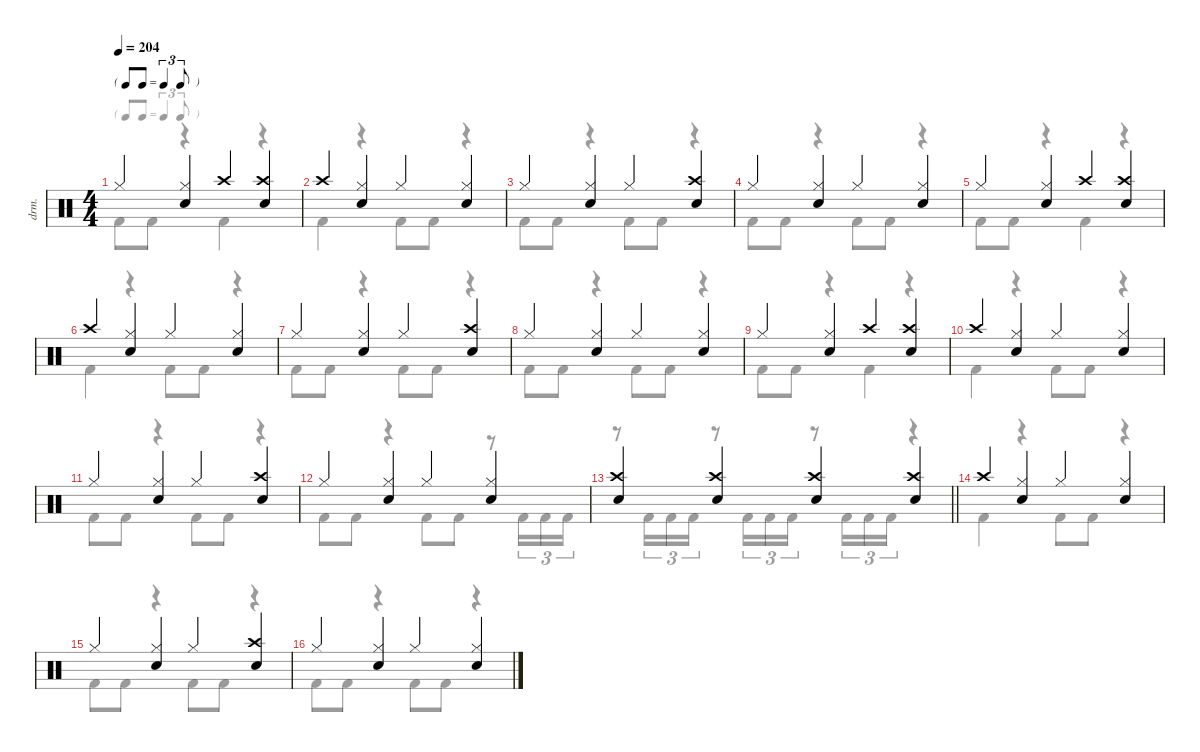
\defaultSystemsLayout 4
\hideDynamics
\bracketExtendMode nobrackets
\otherSystemsTrackNameOrientation horizontal
\track ("Lars Ulrich" "drm.") {defaultSystemsLayout 8 instrument percussion}
\staff {score}
\articulation defaults
\voice
\ts (4 4)
\tf triplet8th
\tempo 204
\clef neutral
\ks aminor "Hi-Hat (closed)".4{dy f beam Up}
("Hi-Hat (closed)" "Snare (hit) 2").4{beam Up} "Crash high (hit)".4{beam Up} ("Crash high (hit)" "Snare (hit) 2").4{beam Up} |
"Crash high (hit)".4{beam Up} ("Hi-Hat (closed)" "Snare (hit) 2").4{beam Up} "Hi-Hat (closed)".4{beam Up} ("Hi-Hat (closed)" "Snare (hit) 2").4{beam Up} |
"Hi-Hat (closed)".4{beam Up} ("Hi-Hat (closed)" "Snare (hit) 2").4{beam Up} "Hi-Hat (closed)".4{beam Up} ("Crash high (hit)" "Snare (hit) 2").4{beam Up} |
"Hi-Hat (closed)".4{beam Up} ("Hi-Hat (closed)" "Snare (hit) 2").4{beam Up} "Hi-Hat (closed)".4{beam Up} ("Hi-Hat (closed)" "Snare (hit) 2").4{beam Up} |
"Hi-Hat (closed)".4{beam Up} ("Hi-Hat (closed)" "Snare (hit) 2").4{beam Up} "Crash high (hit)".4{beam Up} ("Crash high (hit)" "Snare (hit) 2").4{beam Up} |
"Crash high (hit)".4{beam Up} ("Hi-Hat (closed)" "Snare (hit) 2").4{beam Up} "Hi-Hat (closed)".4{beam Up} ("Hi-Hat (closed)" "Snare (hit) 2").4{beam Up} |
"Hi-Hat (closed)".4{beam Up} ("Hi-Hat (closed)" "Snare (hit) 2").4{beam Up} "Hi-Hat (closed)".4{beam Up} ("Crash high (hit)" "Snare (hit) 2").4{beam Up} |
"Hi-Hat (closed)".4{beam Up} ("Hi-Hat (closed)" "Snare (hit) 2").4{beam Up} "Hi-Hat (closed)".4{beam Up} ("Hi-Hat (closed)" "Snare (hit) 2").4{beam Up} |
"Hi-Hat (closed)".4{beam Up} ("Hi-Hat (closed)" "Snare (hit) 2").4{beam Up} "Crash high (hit)".4{beam Up} ("Crash high (hit)" "Snare (hit) 2").4{beam Up} |
"Crash high (hit)".4{beam Up} ("Hi-Hat (closed)" "Snare (hit) 2").4{beam Up} "Hi-Hat (closed)".4{beam Up} ("Hi-Hat (closed)" "Snare (hit) 2").4{beam Up} |
"Hi-Hat (closed)".4{beam Up} ("Hi-Hat (closed)" "Snare (hit) 2").4{beam Up} "Hi-Hat (closed)".4{beam Up} ("Crash high (hit)" "Snare (hit) 2").4{beam Up} |
"Hi-Hat (closed)".4{beam Up} ("Hi-Hat (closed)" "Snare (hit) 2").4{beam Up} "Hi-Hat (closed)".4{beam Up} ("Hi-Hat (closed)" "Snare (hit) 2").4{beam Up} |
\barLineRight lightlight
("Crash high (hit)" "Snare (hit) 2").4{beam Up} ("Crash high (hit)" "Snare (hit) 2").4{beam Up} ("Crash high (hit)" "Snare (hit) 2").4{beam Up} ("Crash high (hit)" "Snare (hit) 2").4{beam Up} |
"Crash high (hit)".4{beam Up} ("Hi-Hat (closed)" "Snare (hit) 2").4{beam Up} "Hi-Hat (closed)".4{beam Up} ("Hi-Hat (closed)" "Snare (hit) 2").4{beam Up} |
"Hi-Hat (closed)".4{beam Up} ("Hi-Hat (closed)" "Snare (hit) 2").4{beam Up} "Hi-Hat (closed)".4{beam Up} ("Crash high (hit)" "Snare (hit) 2").4{beam Up} |
"Hi-Hat (closed)".4{beam Up} ("Hi-Hat (closed)" "Snare (hit) 2").4{beam Up} "Hi-Hat (closed)".4{beam Up} ("Hi-Hat (closed)" "Snare (hit) 2").4{beam Up}
\voice
\clef neutral
\ottava regular
\simile none
\ks aminor "Kick (hit) 2".8{dy f beam Down} "Kick (hit) 2".8{beam Down}
r.4{beam Down} "Kick (hit) 2".4{beam Down} r.4{beam Down} |
"Kick (hit) 2".4{beam Down} r.4{beam Down} "Kick (hit) 2".8{beam Down} "Kick (hit) 2".8{beam Down} r.4{beam Down} |
"Kick (hit) 2".8{beam Down} "Kick (hit) 2".8{beam Down} r.4{beam Down} "Kick (hit) 2".8{beam Down} "Kick (hit) 2".8{beam Down} r.4{beam Down} |
"Kick (hit) 2".8{beam Down} "Kick (hit) 2".8{beam Down} r.4{beam Down} "Kick (hit) 2".8{beam Down} "Kick (hit) 2".8{beam Down} r.4{beam Down} |
"Kick (hit) 2".8{beam Down} "Kick (hit) 2".8{beam Down} r.4{beam Down} "Kick (hit) 2".4{beam Down} r.4{beam Down} |
"Kick (hit) 2".4{beam Down} r.4{beam Down} "Kick (hit) 2".8{beam Down} "Kick (hit) 2".8{beam Down} r.4{beam Down} |
"Kick (hit) 2".8{beam Down} "Kick (hit) 2".8{beam Down} r.4{beam Down} "Kick (hit) 2".8{beam Down} "Kick (hit) 2".8{beam Down} r.4{beam Down} |
"Kick (hit) 2".8{beam Down} "Kick (hit) 2".8{beam Down} r.4{beam Down} "Kick (hit) 2".8{beam Down} "Kick (hit) 2".8{beam Down} r.4{beam Down} |
"Kick (hit) 2".8{beam Down} "Kick (hit) 2".8{beam Down} r.4{beam Down} "Kick (hit) 2".4{beam Down} r.4{beam Down} |
"Kick (hit) 2".4{beam Down} r.4{beam Down} "Kick (hit) 2".8{beam Down} "Kick (hit) 2".8{beam Down} r.4{beam Down} |
"Kick (hit) 2".8{beam Down} "Kick (hit) 2".8{beam Down} r.4{beam Down} "Kick (hit) 2".8{beam Down} "Kick (hit) 2".8{beam Down} r.4{beam Down} |
"Kick (hit) 2".8{beam Down} "Kick (hit) 2".8{beam Down} r.4{beam Down} "Kick (hit) 2".8{beam Down} "Kick (hit) 2".8{beam Down} r.8{beam Down} "Kick (hit) 2".16{tu (3 2) beam Down} "Kick (hit) 2".16{tu (3 2) beam Down} "Kick (hit) 2".16{tu (3 2) beam Down} |
\barLineRight lightlight
r.8{beam Down} "Kick (hit) 2".16{tu (3 2) beam Down} "Kick (hit) 2".16{tu (3 2) beam Down} "Kick (hit) 2".16{tu (3 2) beam Down} r.8{beam Down} "Kick (hit) 2".16{tu (3 2) beam Down} "Kick (hit) 2".16{tu (3 2) beam Down} "Kick (hit) 2".16{tu (3 2) beam Down} r.8{beam Down} "Kick (hit) 2".16{tu (3 2) beam Down} "Kick (hit) 2".16{tu (3 2) beam Down} "Kick (hit) 2".16{tu (3 2) beam Down} r.4{beam Down} |
"Kick (hit) 2".4{beam Down} r.4{beam Down} "Kick (hit) 2".8{beam Down} "Kick (hit) 2".8{beam Down} r.4{beam Down} |
"Kick (hit) 2".8{beam Down} "Kick (hit) 2".8{beam Down} r.4{beam Down} "Kick (hit) 2".8{beam Down} "Kick (hit) 2".8{beam Down} r.4{beam Down} |
"Kick (hit) 2".8{beam Down} "Kick (hit) 2".8{beam Down} r.4{beam Down} "Kick (hit) 2".8{beam Down} "Kick (hit) 2".8{beam Down} r.4{beam Down}
